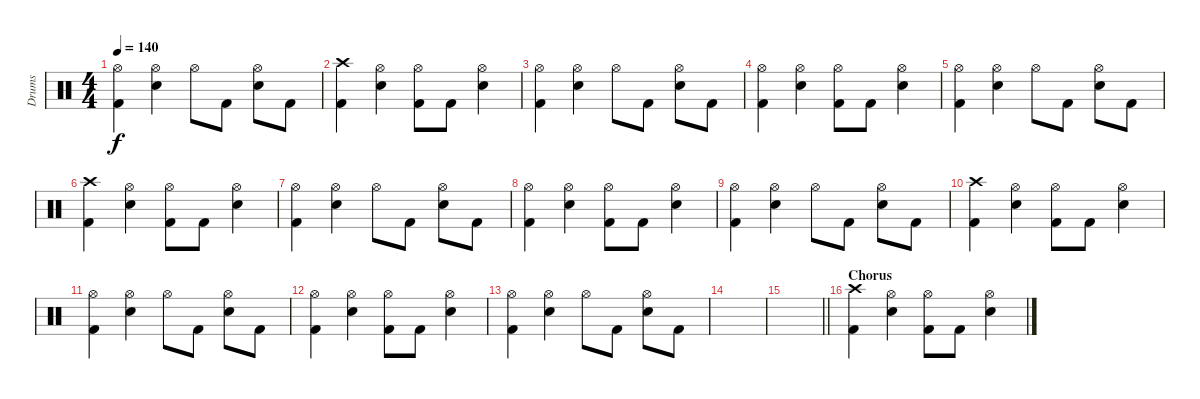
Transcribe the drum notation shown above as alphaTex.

\track ("Drums" "Drums") {instrument percussion}
\staff {score}
\articulation defaults
\ts (4 4)
\tempo 140
\clef neutral
\ks c
("Hi-Hat (open)" "Kick (hit) 2").4{dy f} ("Hi-Hat (open)" "Electric Snare (hit)").4 "Hi-Hat (open)".8 "Kick (hit) 2".8 ("Hi-Hat (open)" "Electric Snare (hit)").8 "Kick (hit) 2".8 |
("Crash high (hit)" "Kick (hit) 2").4 ("Hi-Hat (open)" "Electric Snare (hit)").4 ("Hi-Hat (open)" "Kick (hit) 2").8 "Kick (hit) 2".8 ("Hi-Hat (open)" "Electric Snare (hit)").4 |
("Hi-Hat (open)" "Kick (hit) 2").4 ("Hi-Hat (open)" "Electric Snare (hit)").4 "Hi-Hat (open)".8 "Kick (hit) 2".8 ("Hi-Hat (open)" "Electric Snare (hit)").8 "Kick (hit) 2".8 |
("Hi-Hat (open)" "Kick (hit) 2").4 ("Hi-Hat (open)" "Electric Snare (hit)").4 ("Hi-Hat (open)" "Kick (hit) 2").8 "Kick (hit) 2".8 ("Hi-Hat (open)" "Electric Snare (hit)").4 |
("Hi-Hat (open)" "Kick (hit) 2").4 ("Hi-Hat (open)" "Electric Snare (hit)").4 "Hi-Hat (open)".8 "Kick (hit) 2".8 ("Hi-Hat (open)" "Electric Snare (hit)").8 "Kick (hit) 2".8 |
("Crash high (hit)" "Kick (hit) 2").4 ("Hi-Hat (open)" "Electric Snare (hit)").4 ("Hi-Hat (open)" "Kick (hit) 2").8 "Kick (hit) 2".8 ("Hi-Hat (open)" "Electric Snare (hit)").4 |
("Hi-Hat (open)" "Kick (hit) 2").4 ("Hi-Hat (open)" "Electric Snare (hit)").4 "Hi-Hat (open)".8 "Kick (hit) 2".8 ("Hi-Hat (open)" "Electric Snare (hit)").8 "Kick (hit) 2".8 |
("Hi-Hat (open)" "Kick (hit) 2").4 ("Hi-Hat (open)" "Electric Snare (hit)").4 ("Hi-Hat (open)" "Kick (hit) 2").8 "Kick (hit) 2".8 ("Hi-Hat (open)" "Electric Snare (hit)").4 |
("Hi-Hat (open)" "Kick (hit) 2").4 ("Hi-Hat (open)" "Electric Snare (hit)").4 "Hi-Hat (open)".8 "Kick (hit) 2".8 ("Hi-Hat (open)" "Electric Snare (hit)").8 "Kick (hit) 2".8 |
("Crash high (hit)" "Kick (hit) 2").4 ("Hi-Hat (open)" "Electric Snare (hit)").4 ("Hi-Hat (open)" "Kick (hit) 2").8 "Kick (hit) 2".8 ("Hi-Hat (open)" "Electric Snare (hit)").4 |
("Hi-Hat (open)" "Kick (hit) 2").4 ("Hi-Hat (open)" "Electric Snare (hit)").4 "Hi-Hat (open)".8 "Kick (hit) 2".8 ("Hi-Hat (open)" "Electric Snare (hit)").8 "Kick (hit) 2".8 |
("Hi-Hat (open)" "Kick (hit) 2").4 ("Hi-Hat (open)" "Electric Snare (hit)").4 ("Hi-Hat (open)" "Kick (hit) 2").8 "Kick (hit) 2".8 ("Hi-Hat (open)" "Electric Snare (hit)").4 |
("Hi-Hat (open)" "Kick (hit) 2").4 ("Hi-Hat (open)" "Electric Snare (hit)").4 "Hi-Hat (open)".8 "Kick (hit) 2".8 ("Hi-Hat (open)" "Electric Snare (hit)").8 "Kick (hit) 2".8 |
|
\barLineRight lightlight
|
\section ("" "Chorus")
("Crash high (hit)" "Kick (hit) 2").4 ("Hi-Hat (open)" "Electric Snare (hit)").4 ("Hi-Hat (open)" "Kick (hit) 2").8 "Kick (hit) 2".8 ("Hi-Hat (open)" "Electric Snare (hit)").4
